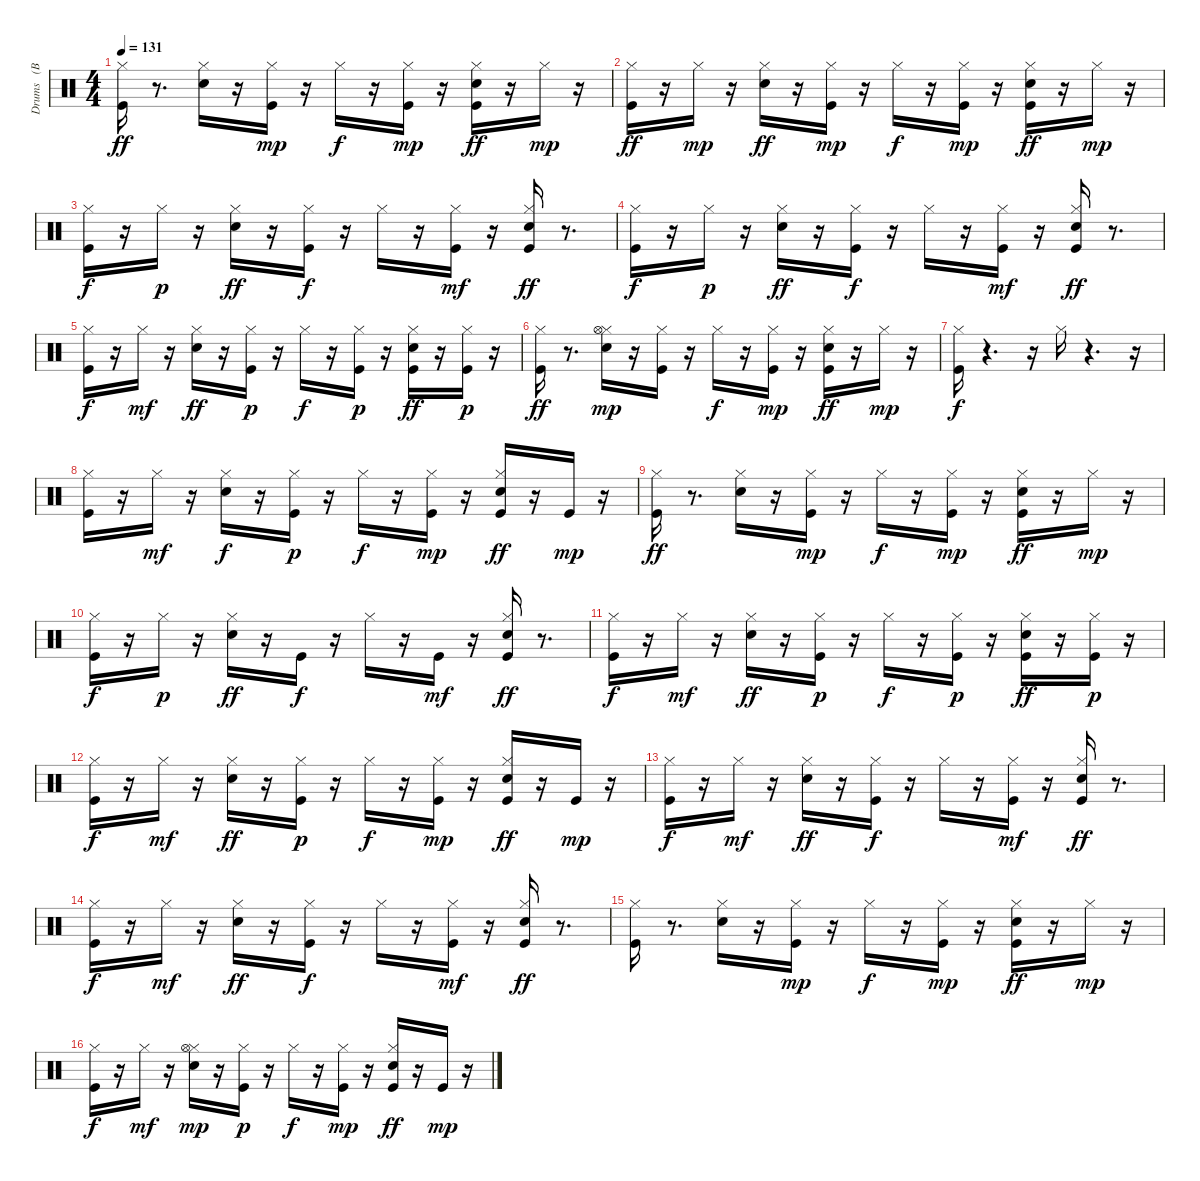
\track ("Drums   (BB)" "Drums   (B") {instrument percussion}
\staff {score}
\articulation defaults
\ts (4 4)
\tempo 131
\clef neutral
\ks c
("Kick (hit)" "Hi-Hat (closed)").16{dy ff} r.8{d} ("Snare (hit) 2" "Hi-Hat (closed)").16 r.16 ("Kick (hit)" "Hi-Hat (closed)").16{dy mp} r.16 "Hi-Hat (closed)".16{dy f} r.16 ("Kick (hit)" "Hi-Hat (closed)").16{dy mp} r.16 ("Kick (hit)" "Snare (hit) 2" "Hi-Hat (closed)").16{dy ff} r.16 "Hi-Hat (closed)".16{dy mp} r.16 |
("Kick (hit)" "Hi-Hat (closed)").16{dy ff} r.16 "Hi-Hat (closed)".16{dy mp} r.16 ("Snare (hit) 2" "Hi-Hat (closed)").16{dy ff} r.16 ("Kick (hit)" "Hi-Hat (closed)").16{dy mp} r.16 "Hi-Hat (closed)".16{dy f} r.16 ("Kick (hit)" "Hi-Hat (closed)").16{dy mp} r.16 ("Kick (hit)" "Snare (hit) 2" "Hi-Hat (closed)").16{dy ff} r.16 "Hi-Hat (closed)".16{dy mp} r.16 |
("Kick (hit)" "Hi-Hat (closed)").16{dy f} r.16 "Hi-Hat (closed)".16{dy p} r.16 ("Snare (hit) 2" "Hi-Hat (closed)").16{dy ff} r.16 ("Kick (hit)" "Hi-Hat (closed)").16{dy f} r.16 "Hi-Hat (closed)".16 r.16 ("Kick (hit)" "Hi-Hat (closed)").16{dy mf} r.16 ("Kick (hit)" "Snare (hit) 2" "Hi-Hat (closed)").16{dy ff} r.8{d} |
("Kick (hit)" "Hi-Hat (closed)").16{dy f} r.16 "Hi-Hat (closed)".16{dy p} r.16 ("Snare (hit) 2" "Hi-Hat (closed)").16{dy ff} r.16 ("Kick (hit)" "Hi-Hat (closed)").16{dy f} r.16 "Hi-Hat (closed)".16 r.16 ("Kick (hit)" "Hi-Hat (closed)").16{dy mf} r.16 ("Kick (hit)" "Snare (hit) 2" "Hi-Hat (closed)").16{dy ff} r.8{d} |
("Kick (hit)" "Hi-Hat (closed)").16{dy f} r.16 "Hi-Hat (closed)".16{dy mf} r.16 ("Snare (hit) 2" "Hi-Hat (closed)").16{dy ff} r.16 ("Kick (hit)" "Hi-Hat (closed)").16{dy p} r.16 "Hi-Hat (closed)".16{dy f} r.16 ("Kick (hit)" "Hi-Hat (closed)").16{dy p} r.16 ("Kick (hit)" "Snare (hit) 2" "Hi-Hat (closed)").16{dy ff} r.16 ("Kick (hit)" "Hi-Hat (closed)").16{dy p} r.16 |
("Kick (hit)" "Hi-Hat (closed)").16{dy ff} r.8{d} ("Snare (hit) 2" "Hi-Hat (closed)" "Hi-Hat (open)").16{dy mp} r.16 ("Kick (hit)" "Hi-Hat (closed)").16 r.16 "Hi-Hat (closed)".16{dy f} r.16 ("Kick (hit)" "Hi-Hat (closed)").16{dy mp} r.16 ("Kick (hit)" "Snare (hit) 2" "Hi-Hat (closed)").16{dy ff} r.16 "Hi-Hat (closed)".16{dy mp} r.16 |
("Kick (hit)" "Hi-Hat (closed)").16{dy f} r.4{d} r.16 "Hi-Hat (closed)".16 r.4{d} r.16 |
("Kick (hit)" "Hi-Hat (closed)").16 r.16 "Hi-Hat (closed)".16{dy mf} r.16 ("Snare (hit) 2" "Hi-Hat (closed)").16{dy f} r.16 ("Kick (hit)" "Hi-Hat (closed)").16{dy p} r.16 "Hi-Hat (closed)".16{dy f} r.16 ("Kick (hit)" "Hi-Hat (closed)").16{dy mp} r.16 ("Kick (hit)" "Snare (hit) 2" "Hi-Hat (closed)").16{dy ff} r.16 "Kick (hit)".16{dy mp} r.16 |
("Kick (hit)" "Hi-Hat (closed)").16{dy ff} r.8{d} ("Snare (hit) 2" "Hi-Hat (closed)").16 r.16 ("Kick (hit)" "Hi-Hat (closed)").16{dy mp} r.16 "Hi-Hat (closed)".16{dy f} r.16 ("Kick (hit)" "Hi-Hat (closed)").16{dy mp} r.16 ("Kick (hit)" "Snare (hit) 2" "Hi-Hat (closed)").16{dy ff} r.16 "Hi-Hat (closed)".16{dy mp} r.16 |
("Kick (hit)" "Hi-Hat (closed)").16{dy f} r.16 "Hi-Hat (closed)".16{dy p} r.16 ("Snare (hit) 2" "Hi-Hat (closed)").16{dy ff} r.16 "Kick (hit)".16{dy f} r.16 "Hi-Hat (closed)".16 r.16 "Kick (hit)".16{dy mf} r.16 ("Kick (hit)" "Snare (hit) 2" "Hi-Hat (closed)").16{dy ff} r.8{d} |
("Kick (hit)" "Hi-Hat (closed)").16{dy f} r.16 "Hi-Hat (closed)".16{dy mf} r.16 ("Snare (hit) 2" "Hi-Hat (closed)").16{dy ff} r.16 ("Kick (hit)" "Hi-Hat (closed)").16{dy p} r.16 "Hi-Hat (closed)".16{dy f} r.16 ("Kick (hit)" "Hi-Hat (closed)").16{dy p} r.16 ("Kick (hit)" "Snare (hit) 2" "Hi-Hat (closed)").16{dy ff} r.16 ("Kick (hit)" "Hi-Hat (closed)").16{dy p} r.16 |
("Kick (hit)" "Hi-Hat (closed)").16{dy f} r.16 "Hi-Hat (closed)".16{dy mf} r.16 ("Snare (hit) 2" "Hi-Hat (closed)").16{dy ff} r.16 ("Kick (hit)" "Hi-Hat (closed)").16{dy p} r.16 "Hi-Hat (closed)".16{dy f} r.16 ("Kick (hit)" "Hi-Hat (closed)").16{dy mp} r.16 ("Kick (hit)" "Snare (hit) 2" "Hi-Hat (closed)").16{dy ff} r.16 "Kick (hit)".16{dy mp} r.16 |
("Kick (hit)" "Hi-Hat (closed)").16{dy f} r.16 "Hi-Hat (closed)".16{dy mf} r.16 ("Snare (hit) 2" "Hi-Hat (closed)").16{dy ff} r.16 ("Kick (hit)" "Hi-Hat (closed)").16{dy f} r.16 "Hi-Hat (closed)".16 r.16 ("Kick (hit)" "Hi-Hat (closed)").16{dy mf} r.16 ("Kick (hit)" "Snare (hit) 2" "Hi-Hat (closed)").16{dy ff} r.8{d} |
("Kick (hit)" "Hi-Hat (closed)").16{dy f} r.16 "Hi-Hat (closed)".16{dy mf} r.16 ("Snare (hit) 2" "Hi-Hat (closed)").16{dy ff} r.16 ("Kick (hit)" "Hi-Hat (closed)").16{dy f} r.16 "Hi-Hat (closed)".16 r.16 ("Kick (hit)" "Hi-Hat (closed)").16{dy mf} r.16 ("Kick (hit)" "Snare (hit) 2" "Hi-Hat (closed)").16{dy ff} r.8{d} |
("Kick (hit)" "Hi-Hat (closed)").16 r.8{d} ("Snare (hit) 2" "Hi-Hat (closed)").16 r.16 ("Kick (hit)" "Hi-Hat (closed)").16{dy mp} r.16 "Hi-Hat (closed)".16{dy f} r.16 ("Kick (hit)" "Hi-Hat (closed)").16{dy mp} r.16 ("Kick (hit)" "Snare (hit) 2" "Hi-Hat (closed)").16{dy ff} r.16 "Hi-Hat (closed)".16{dy mp} r.16 |
("Kick (hit)" "Hi-Hat (closed)").16{dy f} r.16 "Hi-Hat (closed)".16{dy mf} r.16 ("Snare (hit) 2" "Hi-Hat (closed)" "Hi-Hat (open)").16{dy mp} r.16 ("Kick (hit)" "Hi-Hat (closed)").16{dy p} r.16 "Hi-Hat (closed)".16{dy f} r.16 ("Kick (hit)" "Hi-Hat (closed)").16{dy mp} r.16 ("Kick (hit)" "Snare (hit) 2" "Hi-Hat (closed)").16{dy ff} r.16 "Kick (hit)".16{dy mp} r.16
